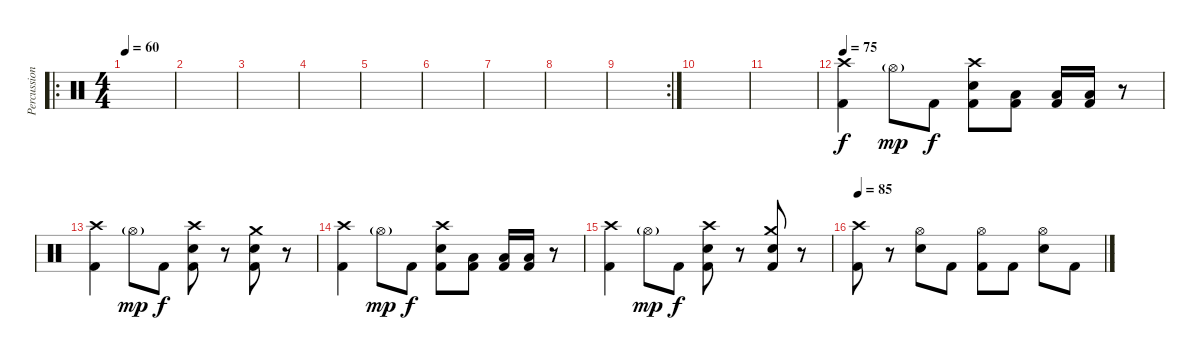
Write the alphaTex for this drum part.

\track ("Percussion" "Percussion") {instrument percussion}
\staff {score}
\articulation defaults
\ro
\ts (4 4)
\tempo 60
\clef neutral
\ks c
|
|
|
|
|
|
|
|
\rc 2
|
|
|
\tempo 75
("Crash high (hit)" "Kick (hit) 2").4 "Hi-Hat (open)"{g}.8{dy mp} "Kick (hit) 2".8{dy f} ("Crash high (hit)" "Electric Snare (hit)" "Kick (hit) 2").8 ("Low Tom (hit)" "Kick (hit) 2").8 ("Low Tom (hit)" "Kick (hit) 2").16 ("Low Tom (hit)" "Kick (hit) 2").16 r.8 |
("Crash high (hit)" "Kick (hit) 2").4 "Hi-Hat (open)"{g}.8{dy mp} "Kick (hit) 2".8{dy f} ("Crash high (hit)" "Electric Snare (hit)" "Kick (hit) 2").8 r.8 ("Crash medium (hit)" "Electric Snare (hit)" "Kick (hit) 2").8 r.8 |
("Crash high (hit)" "Kick (hit) 2").4 "Hi-Hat (open)"{g}.8{dy mp} "Kick (hit) 2".8{dy f} ("Crash high (hit)" "Electric Snare (hit)" "Kick (hit) 2").8 ("Low Tom (hit)" "Kick (hit) 2").8 ("Low Tom (hit)" "Kick (hit) 2").16 ("Low Tom (hit)" "Kick (hit) 2").16 r.8 |
("Crash high (hit)" "Kick (hit) 2").4 "Hi-Hat (open)"{g}.8{dy mp} "Kick (hit) 2".8{dy f} ("Crash high (hit)" "Snare (hit) 2" "Kick (hit) 2").8 r.8 ("Crash medium (hit)" "Snare (hit) 2" "Kick (hit) 2").8 r.8 |
\tempo 85
("Crash high (hit)" "Kick (hit) 2").8 r.8 ("Hi-Hat (open)" "Electric Snare (hit)").8 "Kick (hit) 2".8 ("Hi-Hat (open)" "Kick (hit) 2").8 "Kick (hit) 2".8 ("Hi-Hat (open)" "Electric Snare (hit)").8 "Kick (hit) 2".8
